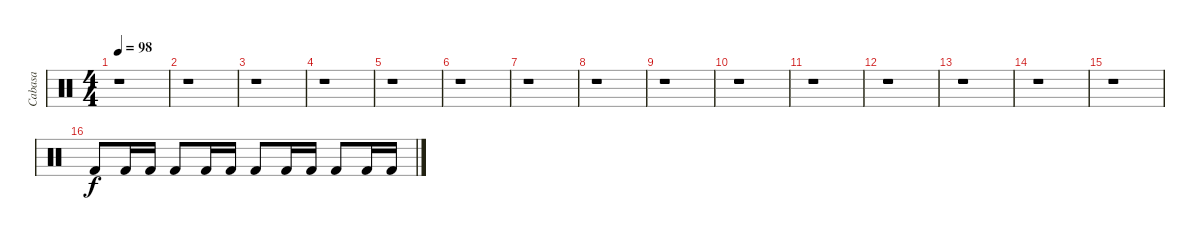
\track ("Cabasa" "Cabasa") {instrument percussion}
\staff {score}
\articulation defaults
\ts (4 4)
\tempo 98
\clef neutral
\ks c
r.1{dy f} |
r.1 |
r.1 |
r.1 |
r.1 |
r.1 |
r.1 |
r.1 |
r.1 |
r.1 |
r.1 |
r.1 |
r.1 |
r.1 |
r.1 |
"Kick (hit) 2".8 "Kick (hit) 2".16 "Kick (hit) 2".16 "Kick (hit) 2".8 "Kick (hit) 2".16 "Kick (hit) 2".16 "Kick (hit) 2".8 "Kick (hit) 2".16 "Kick (hit) 2".16 "Kick (hit) 2".8 "Kick (hit) 2".16 "Kick (hit) 2".16
